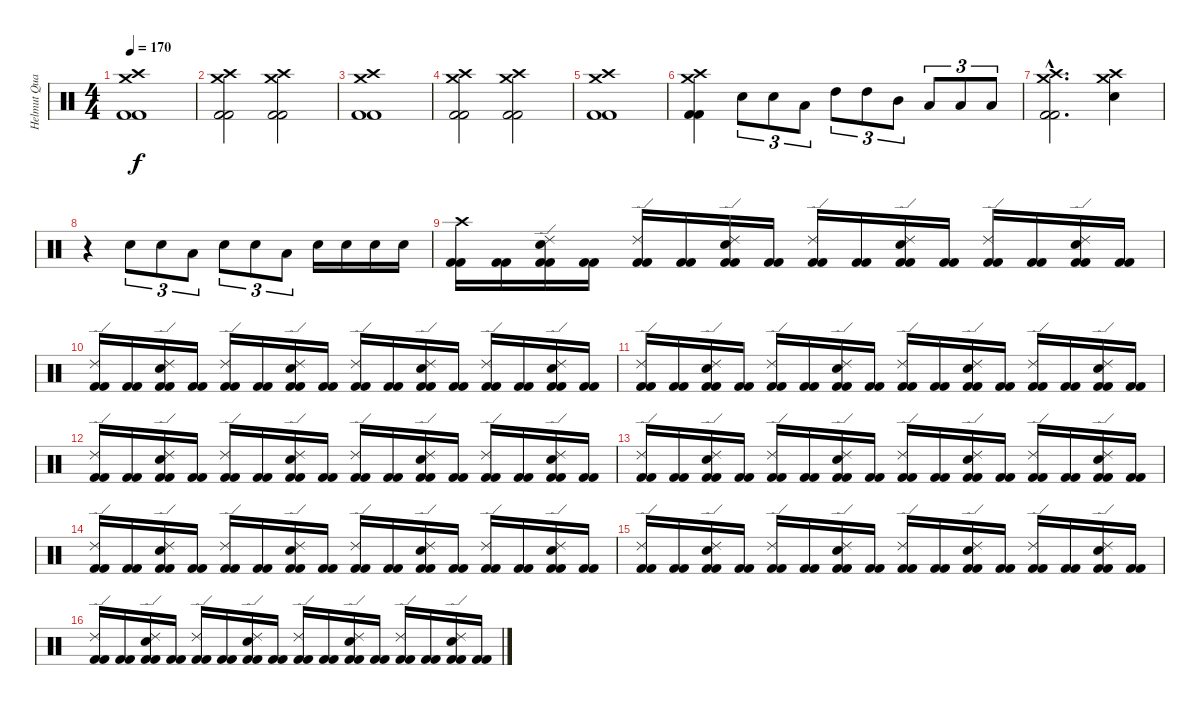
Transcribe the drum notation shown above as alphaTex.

\track ("Helmut Quacken" "Helmut Qua") {instrument percussion}
\staff {score}
\articulation defaults
\ts (4 4)
\tempo 170
\clef neutral
\ks c
("Crash high (hit)" "Crash medium (hit)" "Kick (hit) 2" "Kick (hit) 2").1{dy f} |
("Crash high (hit)" "Crash medium (hit)" "Kick (hit) 2" "Kick (hit) 2").2 ("Crash high (hit)" "Crash medium (hit)" "Kick (hit) 2" "Kick (hit) 2").2 |
("Crash high (hit)" "Crash medium (hit)" "Kick (hit) 2" "Kick (hit) 2").1 |
("Crash high (hit)" "Crash medium (hit)" "Kick (hit) 2" "Kick (hit) 2").2 ("Crash high (hit)" "Crash medium (hit)" "Kick (hit) 2" "Kick (hit) 2").2 |
("Crash high (hit)" "Crash medium (hit)" "Kick (hit) 2" "Kick (hit) 2").1 |
("Crash high (hit)" "Crash medium (hit)" "Kick (hit) 2" "Kick (hit) 2").4 "Electric Snare (hit)".8{tu (3 2)} "Electric Snare (hit)".8{tu (3 2)} "Low Tom (hit)".8{tu (3 2)} "High Tom (hit)".8{tu (3 2)} "High Tom (hit)".8{tu (3 2)} "Mid Tom (hit)".8{tu (3 2)} "Low Tom (hit)".8{tu (3 2)} "Low Tom (hit)".8{tu (3 2)} "Low Tom (hit)".8{tu (3 2)} |
("Crash high (hit)"{hac} "Crash medium (hit)"{hac} "Kick (hit) 2"{hac} "Kick (hit) 2"{hac}).2{d} ("Crash high (hit)" "Crash medium (hit)" "Electric Snare (hit)").4 |
r.4 "Electric Snare (hit)".8{tu (3 2)} "Electric Snare (hit)".8{tu (3 2)} "Low Tom (hit)".8{tu (3 2)} "Electric Snare (hit)".8{tu (3 2)} "Electric Snare (hit)".8{tu (3 2)} "Low Tom (hit)".8{tu (3 2)} "Electric Snare (hit)".16 "Electric Snare (hit)".16 "Electric Snare (hit)".16 "Electric Snare (hit)".16 |
("Crash high (hit)" "Kick (hit) 2" "Kick (hit) 2").16 ("Kick (hit) 2" "Kick (hit) 2").16 ("Ride (edge) 2" "Electric Snare (hit)" "Kick (hit) 2" "Kick (hit) 2").16 ("Kick (hit) 2" "Kick (hit) 2").16 ("Ride (edge) 2" "Kick (hit) 2" "Kick (hit) 2").16 ("Kick (hit) 2" "Kick (hit) 2").16 ("Ride (edge) 2" "Electric Snare (hit)" "Kick (hit) 2" "Kick (hit) 2").16 ("Kick (hit) 2" "Kick (hit) 2").16 ("Ride (edge) 2" "Kick (hit) 2" "Kick (hit) 2").16 ("Kick (hit) 2" "Kick (hit) 2").16 ("Ride (edge) 2" "Electric Snare (hit)" "Kick (hit) 2" "Kick (hit) 2").16 ("Kick (hit) 2" "Kick (hit) 2").16 ("Ride (edge) 2" "Kick (hit) 2" "Kick (hit) 2").16 ("Kick (hit) 2" "Kick (hit) 2").16 ("Ride (edge) 2" "Electric Snare (hit)" "Kick (hit) 2" "Kick (hit) 2").16 ("Kick (hit) 2" "Kick (hit) 2").16 |
("Ride (edge) 2" "Kick (hit) 2" "Kick (hit) 2").16 ("Kick (hit) 2" "Kick (hit) 2").16 ("Ride (edge) 2" "Electric Snare (hit)" "Kick (hit) 2" "Kick (hit) 2").16 ("Kick (hit) 2" "Kick (hit) 2").16 ("Ride (edge) 2" "Kick (hit) 2" "Kick (hit) 2").16 ("Kick (hit) 2" "Kick (hit) 2").16 ("Ride (edge) 2" "Electric Snare (hit)" "Kick (hit) 2" "Kick (hit) 2").16 ("Kick (hit) 2" "Kick (hit) 2").16 ("Ride (edge) 2" "Kick (hit) 2" "Kick (hit) 2").16 ("Kick (hit) 2" "Kick (hit) 2").16 ("Ride (edge) 2" "Electric Snare (hit)" "Kick (hit) 2" "Kick (hit) 2").16 ("Kick (hit) 2" "Kick (hit) 2").16 ("Ride (edge) 2" "Kick (hit) 2" "Kick (hit) 2").16 ("Kick (hit) 2" "Kick (hit) 2").16 ("Ride (edge) 2" "Electric Snare (hit)" "Kick (hit) 2" "Kick (hit) 2").16 ("Kick (hit) 2" "Kick (hit) 2").16 |
("Ride (edge) 2" "Kick (hit) 2" "Kick (hit) 2").16 ("Kick (hit) 2" "Kick (hit) 2").16 ("Ride (edge) 2" "Electric Snare (hit)" "Kick (hit) 2" "Kick (hit) 2").16 ("Kick (hit) 2" "Kick (hit) 2").16 ("Ride (edge) 2" "Kick (hit) 2" "Kick (hit) 2").16 ("Kick (hit) 2" "Kick (hit) 2").16 ("Ride (edge) 2" "Electric Snare (hit)" "Kick (hit) 2" "Kick (hit) 2").16 ("Kick (hit) 2" "Kick (hit) 2").16 ("Ride (edge) 2" "Kick (hit) 2" "Kick (hit) 2").16 ("Kick (hit) 2" "Kick (hit) 2").16 ("Ride (edge) 2" "Electric Snare (hit)" "Kick (hit) 2" "Kick (hit) 2").16 ("Kick (hit) 2" "Kick (hit) 2").16 ("Ride (edge) 2" "Kick (hit) 2" "Kick (hit) 2").16 ("Kick (hit) 2" "Kick (hit) 2").16 ("Ride (edge) 2" "Electric Snare (hit)" "Kick (hit) 2" "Kick (hit) 2").16 ("Kick (hit) 2" "Kick (hit) 2").16 |
("Ride (edge) 2" "Kick (hit) 2" "Kick (hit) 2").16 ("Kick (hit) 2" "Kick (hit) 2").16 ("Ride (edge) 2" "Electric Snare (hit)" "Kick (hit) 2" "Kick (hit) 2").16 ("Kick (hit) 2" "Kick (hit) 2").16 ("Ride (edge) 2" "Kick (hit) 2" "Kick (hit) 2").16 ("Kick (hit) 2" "Kick (hit) 2").16 ("Ride (edge) 2" "Electric Snare (hit)" "Kick (hit) 2" "Kick (hit) 2").16 ("Kick (hit) 2" "Kick (hit) 2").16 ("Ride (edge) 2" "Kick (hit) 2" "Kick (hit) 2").16 ("Kick (hit) 2" "Kick (hit) 2").16 ("Ride (edge) 2" "Electric Snare (hit)" "Kick (hit) 2" "Kick (hit) 2").16 ("Kick (hit) 2" "Kick (hit) 2").16 ("Ride (edge) 2" "Kick (hit) 2" "Kick (hit) 2").16 ("Kick (hit) 2" "Kick (hit) 2").16 ("Ride (edge) 2" "Electric Snare (hit)" "Kick (hit) 2" "Kick (hit) 2").16 ("Kick (hit) 2" "Kick (hit) 2").16 |
("Ride (edge) 2" "Kick (hit) 2" "Kick (hit) 2").16 ("Kick (hit) 2" "Kick (hit) 2").16 ("Ride (edge) 2" "Electric Snare (hit)" "Kick (hit) 2" "Kick (hit) 2").16 ("Kick (hit) 2" "Kick (hit) 2").16 ("Ride (edge) 2" "Kick (hit) 2" "Kick (hit) 2").16 ("Kick (hit) 2" "Kick (hit) 2").16 ("Ride (edge) 2" "Electric Snare (hit)" "Kick (hit) 2" "Kick (hit) 2").16 ("Kick (hit) 2" "Kick (hit) 2").16 ("Ride (edge) 2" "Kick (hit) 2" "Kick (hit) 2").16 ("Kick (hit) 2" "Kick (hit) 2").16 ("Ride (edge) 2" "Electric Snare (hit)" "Kick (hit) 2" "Kick (hit) 2").16 ("Kick (hit) 2" "Kick (hit) 2").16 ("Ride (edge) 2" "Kick (hit) 2" "Kick (hit) 2").16 ("Kick (hit) 2" "Kick (hit) 2").16 ("Ride (edge) 2" "Electric Snare (hit)" "Kick (hit) 2" "Kick (hit) 2").16 ("Kick (hit) 2" "Kick (hit) 2").16 |
("Ride (edge) 2" "Kick (hit) 2" "Kick (hit) 2").16 ("Kick (hit) 2" "Kick (hit) 2").16 ("Ride (edge) 2" "Electric Snare (hit)" "Kick (hit) 2" "Kick (hit) 2").16 ("Kick (hit) 2" "Kick (hit) 2").16 ("Ride (edge) 2" "Kick (hit) 2" "Kick (hit) 2").16 ("Kick (hit) 2" "Kick (hit) 2").16 ("Ride (edge) 2" "Electric Snare (hit)" "Kick (hit) 2" "Kick (hit) 2").16 ("Kick (hit) 2" "Kick (hit) 2").16 ("Ride (edge) 2" "Kick (hit) 2" "Kick (hit) 2").16 ("Kick (hit) 2" "Kick (hit) 2").16 ("Ride (edge) 2" "Electric Snare (hit)" "Kick (hit) 2" "Kick (hit) 2").16 ("Kick (hit) 2" "Kick (hit) 2").16 ("Ride (edge) 2" "Kick (hit) 2" "Kick (hit) 2").16 ("Kick (hit) 2" "Kick (hit) 2").16 ("Ride (edge) 2" "Electric Snare (hit)" "Kick (hit) 2" "Kick (hit) 2").16 ("Kick (hit) 2" "Kick (hit) 2").16 |
("Ride (edge) 2" "Kick (hit) 2" "Kick (hit) 2").16 ("Kick (hit) 2" "Kick (hit) 2").16 ("Ride (edge) 2" "Electric Snare (hit)" "Kick (hit) 2" "Kick (hit) 2").16 ("Kick (hit) 2" "Kick (hit) 2").16 ("Ride (edge) 2" "Kick (hit) 2" "Kick (hit) 2").16 ("Kick (hit) 2" "Kick (hit) 2").16 ("Ride (edge) 2" "Electric Snare (hit)" "Kick (hit) 2" "Kick (hit) 2").16 ("Kick (hit) 2" "Kick (hit) 2").16 ("Ride (edge) 2" "Kick (hit) 2" "Kick (hit) 2").16 ("Kick (hit) 2" "Kick (hit) 2").16 ("Ride (edge) 2" "Electric Snare (hit)" "Kick (hit) 2" "Kick (hit) 2").16 ("Kick (hit) 2" "Kick (hit) 2").16 ("Ride (edge) 2" "Kick (hit) 2" "Kick (hit) 2").16 ("Kick (hit) 2" "Kick (hit) 2").16 ("Ride (edge) 2" "Electric Snare (hit)" "Kick (hit) 2" "Kick (hit) 2").16 ("Kick (hit) 2" "Kick (hit) 2").16 |
("Ride (edge) 2" "Kick (hit) 2" "Kick (hit) 2").16 ("Kick (hit) 2" "Kick (hit) 2").16 ("Ride (edge) 2" "Electric Snare (hit)" "Kick (hit) 2" "Kick (hit) 2").16 ("Kick (hit) 2" "Kick (hit) 2").16 ("Ride (edge) 2" "Kick (hit) 2" "Kick (hit) 2").16 ("Kick (hit) 2" "Kick (hit) 2").16 ("Ride (edge) 2" "Electric Snare (hit)" "Kick (hit) 2" "Kick (hit) 2").16 ("Kick (hit) 2" "Kick (hit) 2").16 ("Ride (edge) 2" "Kick (hit) 2" "Kick (hit) 2").16 ("Kick (hit) 2" "Kick (hit) 2").16 ("Ride (edge) 2" "Electric Snare (hit)" "Kick (hit) 2" "Kick (hit) 2").16 ("Kick (hit) 2" "Kick (hit) 2").16 ("Ride (edge) 2" "Kick (hit) 2" "Kick (hit) 2").16 ("Kick (hit) 2" "Kick (hit) 2").16 ("Ride (edge) 2" "Electric Snare (hit)" "Kick (hit) 2" "Kick (hit) 2").16 ("Kick (hit) 2" "Kick (hit) 2").16
